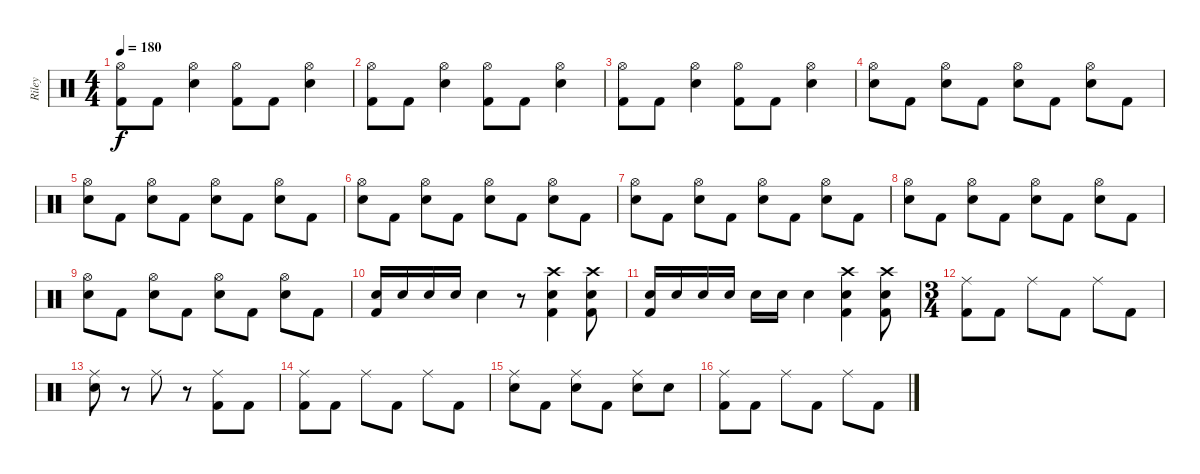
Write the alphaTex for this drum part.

\track ("Riley" "Riley") {instrument percussion}
\staff {score}
\articulation defaults
\ts (4 4)
\tempo 180
\clef neutral
\ks c
("Hi-Hat (open)" "Kick (hit) 2").8{dy f} "Kick (hit) 2".8 ("Hi-Hat (open)" "Electric Snare (hit)").4 ("Hi-Hat (open)" "Kick (hit) 2").8 "Kick (hit) 2".8 ("Hi-Hat (open)" "Electric Snare (hit)").4 |
("Hi-Hat (open)" "Kick (hit) 2").8 "Kick (hit) 2".8 ("Hi-Hat (open)" "Electric Snare (hit)").4 ("Hi-Hat (open)" "Kick (hit) 2").8 "Kick (hit) 2".8 ("Hi-Hat (open)" "Electric Snare (hit)").4 |
("Hi-Hat (open)" "Kick (hit) 2").8 "Kick (hit) 2".8 ("Hi-Hat (open)" "Electric Snare (hit)").4 ("Hi-Hat (open)" "Kick (hit) 2").8 "Kick (hit) 2".8 ("Hi-Hat (open)" "Electric Snare (hit)").4 |
("Hi-Hat (open)" "Electric Snare (hit)").8 "Kick (hit) 2".8 ("Hi-Hat (open)" "Electric Snare (hit)").8 "Kick (hit) 2".8 ("Hi-Hat (open)" "Electric Snare (hit)").8 "Kick (hit) 2".8 ("Hi-Hat (open)" "Electric Snare (hit)").8 "Kick (hit) 2".8 |
("Hi-Hat (open)" "Electric Snare (hit)").8 "Kick (hit) 2".8 ("Hi-Hat (open)" "Electric Snare (hit)").8 "Kick (hit) 2".8 ("Hi-Hat (open)" "Electric Snare (hit)").8 "Kick (hit) 2".8 ("Hi-Hat (open)" "Electric Snare (hit)").8 "Kick (hit) 2".8 |
("Hi-Hat (open)" "Electric Snare (hit)").8 "Kick (hit) 2".8 ("Hi-Hat (open)" "Electric Snare (hit)").8 "Kick (hit) 2".8 ("Hi-Hat (open)" "Electric Snare (hit)").8 "Kick (hit) 2".8 ("Hi-Hat (open)" "Electric Snare (hit)").8 "Kick (hit) 2".8 |
("Hi-Hat (open)" "Electric Snare (hit)").8 "Kick (hit) 2".8 ("Hi-Hat (open)" "Electric Snare (hit)").8 "Kick (hit) 2".8 ("Hi-Hat (open)" "Electric Snare (hit)").8 "Kick (hit) 2".8 ("Hi-Hat (open)" "Electric Snare (hit)").8 "Kick (hit) 2".8 |
("Hi-Hat (open)" "Electric Snare (hit)").8 "Kick (hit) 2".8 ("Hi-Hat (open)" "Electric Snare (hit)").8 "Kick (hit) 2".8 ("Hi-Hat (open)" "Electric Snare (hit)").8 "Kick (hit) 2".8 ("Hi-Hat (open)" "Electric Snare (hit)").8 "Kick (hit) 2".8 |
("Hi-Hat (open)" "Electric Snare (hit)").8 "Kick (hit) 2".8 ("Hi-Hat (open)" "Electric Snare (hit)").8 "Kick (hit) 2".8 ("Hi-Hat (open)" "Electric Snare (hit)").8 "Kick (hit) 2".8 ("Hi-Hat (open)" "Electric Snare (hit)").8 "Kick (hit) 2".8 |
("Electric Snare (hit)" "Kick (hit) 2").16 "Electric Snare (hit)".16 "Electric Snare (hit)".16 "Electric Snare (hit)".16 "Electric Snare (hit)".4 r.8 ("Crash high (hit)" "Electric Snare (hit)" "Kick (hit) 2").4 ("Crash high (hit)" "Electric Snare (hit)" "Kick (hit) 2").8 |
("Electric Snare (hit)" "Kick (hit) 2").16 "Electric Snare (hit)".16 "Electric Snare (hit)".16 "Electric Snare (hit)".16 "Electric Snare (hit)".16 "Electric Snare (hit)".16 "Electric Snare (hit)".4 ("Crash high (hit)" "Electric Snare (hit)" "Kick (hit) 2").4 ("Crash high (hit)" "Electric Snare (hit)" "Kick (hit) 2").8 |
\ts (3 4)
("Ride (middle)" "Kick (hit) 2").8 "Kick (hit) 2".8 "Ride (middle)".8 "Kick (hit) 2".8 "Ride (middle)".8 "Kick (hit) 2".8 |
("Ride (middle)" "Electric Snare (hit)").8 r.8 "Ride (middle)".8 r.8 ("Ride (middle)" "Kick (hit) 2").8 "Kick (hit) 2".8 |
("Ride (middle)" "Kick (hit) 2").8 "Kick (hit) 2".8 "Ride (middle)".8 "Kick (hit) 2".8 "Ride (middle)".8 "Kick (hit) 2".8 |
("Ride (middle)" "Electric Snare (hit)").8 "Kick (hit) 2".8 ("Ride (middle)" "Electric Snare (hit)").8 "Kick (hit) 2".8 ("Ride (middle)" "Electric Snare (hit)").8 "Electric Snare (hit)".8 |
("Ride (middle)" "Kick (hit) 2").8 "Kick (hit) 2".8 "Ride (middle)".8 "Kick (hit) 2".8 "Ride (middle)".8 "Kick (hit) 2".8
